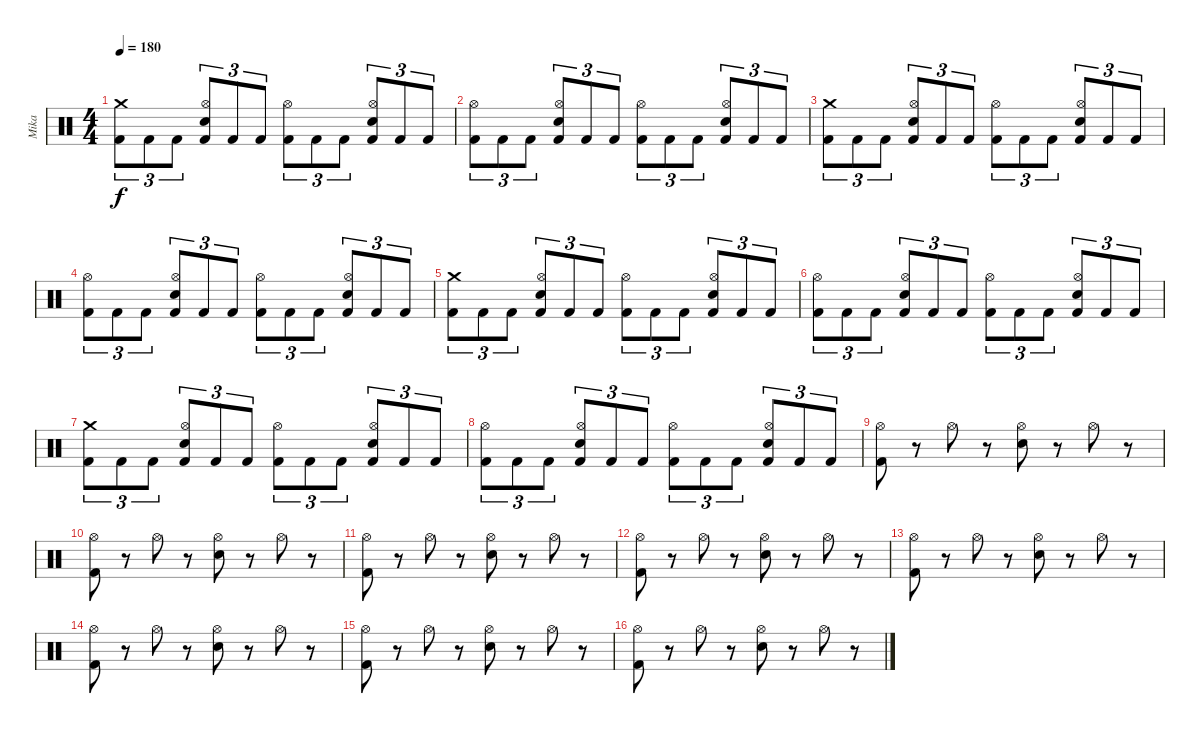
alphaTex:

\track ("Mika" "Mika") {instrument percussion}
\staff {score}
\articulation defaults
\ts (4 4)
\tempo 180
\clef neutral
\ks c
("Crash medium (hit)" "Kick (hit) 2").8{tu (3 2) dy f} "Kick (hit) 2".8{tu (3 2)} "Kick (hit) 2".8{tu (3 2)} ("Hi-Hat (open)" "Electric Snare (hit)" "Kick (hit) 2").8{tu (3 2)} "Kick (hit) 2".8{tu (3 2)} "Kick (hit) 2".8{tu (3 2)} ("Hi-Hat (open)" "Kick (hit) 2").8{tu (3 2)} "Kick (hit) 2".8{tu (3 2)} "Kick (hit) 2".8{tu (3 2)} ("Hi-Hat (open)" "Electric Snare (hit)" "Kick (hit) 2").8{tu (3 2)} "Kick (hit) 2".8{tu (3 2)} "Kick (hit) 2".8{tu (3 2)} |
("Hi-Hat (open)" "Kick (hit) 2").8{tu (3 2)} "Kick (hit) 2".8{tu (3 2)} "Kick (hit) 2".8{tu (3 2)} ("Hi-Hat (open)" "Electric Snare (hit)" "Kick (hit) 2").8{tu (3 2)} "Kick (hit) 2".8{tu (3 2)} "Kick (hit) 2".8{tu (3 2)} ("Hi-Hat (open)" "Kick (hit) 2").8{tu (3 2)} "Kick (hit) 2".8{tu (3 2)} "Kick (hit) 2".8{tu (3 2)} ("Hi-Hat (open)" "Electric Snare (hit)" "Kick (hit) 2").8{tu (3 2)} "Kick (hit) 2".8{tu (3 2)} "Kick (hit) 2".8{tu (3 2)} |
("Crash medium (hit)" "Kick (hit) 2").8{tu (3 2)} "Kick (hit) 2".8{tu (3 2)} "Kick (hit) 2".8{tu (3 2)} ("Hi-Hat (open)" "Electric Snare (hit)" "Kick (hit) 2").8{tu (3 2)} "Kick (hit) 2".8{tu (3 2)} "Kick (hit) 2".8{tu (3 2)} ("Hi-Hat (open)" "Kick (hit) 2").8{tu (3 2)} "Kick (hit) 2".8{tu (3 2)} "Kick (hit) 2".8{tu (3 2)} ("Hi-Hat (open)" "Electric Snare (hit)" "Kick (hit) 2").8{tu (3 2)} "Kick (hit) 2".8{tu (3 2)} "Kick (hit) 2".8{tu (3 2)} |
("Hi-Hat (open)" "Kick (hit) 2").8{tu (3 2)} "Kick (hit) 2".8{tu (3 2)} "Kick (hit) 2".8{tu (3 2)} ("Hi-Hat (open)" "Electric Snare (hit)" "Kick (hit) 2").8{tu (3 2)} "Kick (hit) 2".8{tu (3 2)} "Kick (hit) 2".8{tu (3 2)} ("Hi-Hat (open)" "Kick (hit) 2").8{tu (3 2)} "Kick (hit) 2".8{tu (3 2)} "Kick (hit) 2".8{tu (3 2)} ("Hi-Hat (open)" "Electric Snare (hit)" "Kick (hit) 2").8{tu (3 2)} "Kick (hit) 2".8{tu (3 2)} "Kick (hit) 2".8{tu (3 2)} |
("Crash medium (hit)" "Kick (hit) 2").8{tu (3 2)} "Kick (hit) 2".8{tu (3 2)} "Kick (hit) 2".8{tu (3 2)} ("Hi-Hat (open)" "Electric Snare (hit)" "Kick (hit) 2").8{tu (3 2)} "Kick (hit) 2".8{tu (3 2)} "Kick (hit) 2".8{tu (3 2)} ("Hi-Hat (open)" "Kick (hit) 2").8{tu (3 2)} "Kick (hit) 2".8{tu (3 2)} "Kick (hit) 2".8{tu (3 2)} ("Hi-Hat (open)" "Electric Snare (hit)" "Kick (hit) 2").8{tu (3 2)} "Kick (hit) 2".8{tu (3 2)} "Kick (hit) 2".8{tu (3 2)} |
("Hi-Hat (open)" "Kick (hit) 2").8{tu (3 2)} "Kick (hit) 2".8{tu (3 2)} "Kick (hit) 2".8{tu (3 2)} ("Hi-Hat (open)" "Electric Snare (hit)" "Kick (hit) 2").8{tu (3 2)} "Kick (hit) 2".8{tu (3 2)} "Kick (hit) 2".8{tu (3 2)} ("Hi-Hat (open)" "Kick (hit) 2").8{tu (3 2)} "Kick (hit) 2".8{tu (3 2)} "Kick (hit) 2".8{tu (3 2)} ("Hi-Hat (open)" "Electric Snare (hit)" "Kick (hit) 2").8{tu (3 2)} "Kick (hit) 2".8{tu (3 2)} "Kick (hit) 2".8{tu (3 2)} |
("Crash medium (hit)" "Kick (hit) 2").8{tu (3 2)} "Kick (hit) 2".8{tu (3 2)} "Kick (hit) 2".8{tu (3 2)} ("Hi-Hat (open)" "Electric Snare (hit)" "Kick (hit) 2").8{tu (3 2)} "Kick (hit) 2".8{tu (3 2)} "Kick (hit) 2".8{tu (3 2)} ("Hi-Hat (open)" "Kick (hit) 2").8{tu (3 2)} "Kick (hit) 2".8{tu (3 2)} "Kick (hit) 2".8{tu (3 2)} ("Hi-Hat (open)" "Electric Snare (hit)" "Kick (hit) 2").8{tu (3 2)} "Kick (hit) 2".8{tu (3 2)} "Kick (hit) 2".8{tu (3 2)} |
("Hi-Hat (open)" "Kick (hit) 2").8{tu (3 2)} "Kick (hit) 2".8{tu (3 2)} "Kick (hit) 2".8{tu (3 2)} ("Hi-Hat (open)" "Electric Snare (hit)" "Kick (hit) 2").8{tu (3 2)} "Kick (hit) 2".8{tu (3 2)} "Kick (hit) 2".8{tu (3 2)} ("Hi-Hat (open)" "Kick (hit) 2").8{tu (3 2)} "Kick (hit) 2".8{tu (3 2)} "Kick (hit) 2".8{tu (3 2)} ("Hi-Hat (open)" "Electric Snare (hit)" "Kick (hit) 2").8{tu (3 2)} "Kick (hit) 2".8{tu (3 2)} "Kick (hit) 2".8{tu (3 2)} |
("Hi-Hat (open)" "Kick (hit) 2").8 r.8 "Hi-Hat (open)".8 r.8 ("Hi-Hat (open)" "Electric Snare (hit)").8 r.8 "Hi-Hat (open)".8 r.8 |
("Hi-Hat (open)" "Kick (hit) 2").8 r.8 "Hi-Hat (open)".8 r.8 ("Hi-Hat (open)" "Electric Snare (hit)").8 r.8 "Hi-Hat (open)".8 r.8 |
("Hi-Hat (open)" "Kick (hit) 2").8 r.8 "Hi-Hat (open)".8 r.8 ("Hi-Hat (open)" "Electric Snare (hit)").8 r.8 "Hi-Hat (open)".8 r.8 |
("Hi-Hat (open)" "Kick (hit) 2").8 r.8 "Hi-Hat (open)".8 r.8 ("Hi-Hat (open)" "Electric Snare (hit)").8 r.8 "Hi-Hat (open)".8 r.8 |
("Hi-Hat (open)" "Kick (hit) 2").8 r.8 "Hi-Hat (open)".8 r.8 ("Hi-Hat (open)" "Electric Snare (hit)").8 r.8 "Hi-Hat (open)".8 r.8 |
("Hi-Hat (open)" "Kick (hit) 2").8 r.8 "Hi-Hat (open)".8 r.8 ("Hi-Hat (open)" "Electric Snare (hit)").8 r.8 "Hi-Hat (open)".8 r.8 |
("Hi-Hat (open)" "Kick (hit) 2").8 r.8 "Hi-Hat (open)".8 r.8 ("Hi-Hat (open)" "Electric Snare (hit)").8 r.8 "Hi-Hat (open)".8 r.8 |
("Hi-Hat (open)" "Kick (hit) 2").8 r.8 "Hi-Hat (open)".8 r.8 ("Hi-Hat (open)" "Electric Snare (hit)").8 r.8 "Hi-Hat (open)".8 r.8
